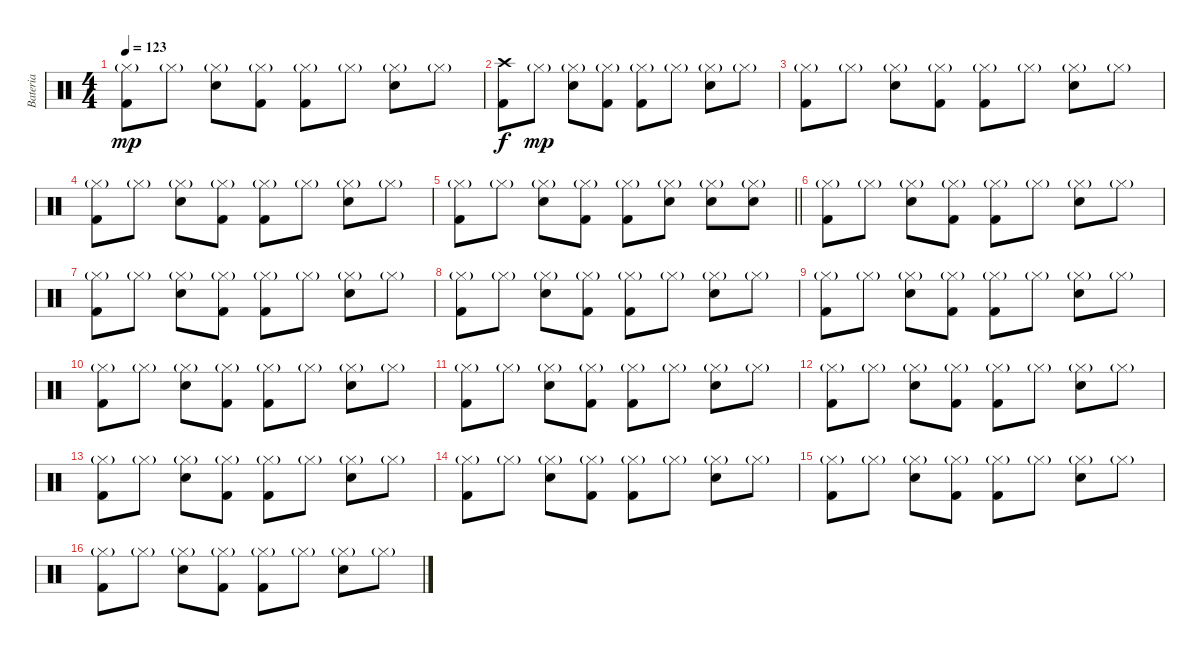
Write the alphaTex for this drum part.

\track ("Bateria" "Bateria") {instrument percussion}
\staff {score}
\articulation defaults
\ts (4 4)
\tempo 123
\clef neutral
\ks c
("Hi-Hat (closed)"{g} "Kick (hit) 2").8{dy mp} "Hi-Hat (closed)"{g}.8 ("Hi-Hat (closed)"{g} "Snare (hit) 2").8 ("Hi-Hat (closed)"{g} "Kick (hit) 2").8 ("Hi-Hat (closed)"{g} "Kick (hit) 2").8 "Hi-Hat (closed)"{g}.8 ("Hi-Hat (closed)"{g} "Snare (hit) 2").8 "Hi-Hat (closed)"{g}.8 |
("Crash high (hit)" "Kick (hit) 2").8{dy f} "Hi-Hat (closed)"{g}.8{dy mp} ("Hi-Hat (closed)"{g} "Snare (hit) 2").8 ("Hi-Hat (closed)"{g} "Kick (hit) 2").8 ("Hi-Hat (closed)"{g} "Kick (hit) 2").8 "Hi-Hat (closed)"{g}.8 ("Hi-Hat (closed)"{g} "Snare (hit) 2").8 "Hi-Hat (closed)"{g}.8 |
("Hi-Hat (closed)"{g} "Kick (hit) 2").8 "Hi-Hat (closed)"{g}.8 ("Hi-Hat (closed)"{g} "Snare (hit) 2").8 ("Hi-Hat (closed)"{g} "Kick (hit) 2").8 ("Hi-Hat (closed)"{g} "Kick (hit) 2").8 "Hi-Hat (closed)"{g}.8 ("Hi-Hat (closed)"{g} "Snare (hit) 2").8 "Hi-Hat (closed)"{g}.8 |
("Hi-Hat (closed)"{g} "Kick (hit) 2").8 "Hi-Hat (closed)"{g}.8 ("Hi-Hat (closed)"{g} "Snare (hit) 2").8 ("Hi-Hat (closed)"{g} "Kick (hit) 2").8 ("Hi-Hat (closed)"{g} "Kick (hit) 2").8 "Hi-Hat (closed)"{g}.8 ("Hi-Hat (closed)"{g} "Snare (hit) 2").8 "Hi-Hat (closed)"{g}.8 |
\barLineRight lightlight
("Hi-Hat (closed)"{g} "Kick (hit) 2").8 "Hi-Hat (closed)"{g}.8 ("Hi-Hat (closed)"{g} "Snare (hit) 2").8 ("Hi-Hat (closed)"{g} "Kick (hit) 2").8 ("Hi-Hat (closed)"{g} "Kick (hit) 2").8 ("Hi-Hat (closed)"{g} "Snare (hit) 2").8 ("Hi-Hat (closed)"{g} "Snare (hit) 2").8 ("Hi-Hat (closed)"{g} "Snare (hit) 2").8 |
("Hi-Hat (closed)"{g} "Kick (hit) 2").8 "Hi-Hat (closed)"{g}.8 ("Hi-Hat (closed)"{g} "Snare (hit) 2").8 ("Hi-Hat (closed)"{g} "Kick (hit) 2").8 ("Hi-Hat (closed)"{g} "Kick (hit) 2").8 "Hi-Hat (closed)"{g}.8 ("Hi-Hat (closed)"{g} "Snare (hit) 2").8 "Hi-Hat (closed)"{g}.8 |
("Hi-Hat (closed)"{g} "Kick (hit) 2").8 "Hi-Hat (closed)"{g}.8 ("Hi-Hat (closed)"{g} "Snare (hit) 2").8 ("Hi-Hat (closed)"{g} "Kick (hit) 2").8 ("Hi-Hat (closed)"{g} "Kick (hit) 2").8 "Hi-Hat (closed)"{g}.8 ("Hi-Hat (closed)"{g} "Snare (hit) 2").8 "Hi-Hat (closed)"{g}.8 |
("Hi-Hat (closed)"{g} "Kick (hit) 2").8 "Hi-Hat (closed)"{g}.8 ("Hi-Hat (closed)"{g} "Snare (hit) 2").8 ("Hi-Hat (closed)"{g} "Kick (hit) 2").8 ("Hi-Hat (closed)"{g} "Kick (hit) 2").8 "Hi-Hat (closed)"{g}.8 ("Hi-Hat (closed)"{g} "Snare (hit) 2").8 "Hi-Hat (closed)"{g}.8 |
("Hi-Hat (closed)"{g} "Kick (hit) 2").8 "Hi-Hat (closed)"{g}.8 ("Hi-Hat (closed)"{g} "Snare (hit) 2").8 ("Hi-Hat (closed)"{g} "Kick (hit) 2").8 ("Hi-Hat (closed)"{g} "Kick (hit) 2").8 "Hi-Hat (closed)"{g}.8 ("Hi-Hat (closed)"{g} "Snare (hit) 2").8 "Hi-Hat (closed)"{g}.8 |
("Hi-Hat (closed)"{g} "Kick (hit) 2").8 "Hi-Hat (closed)"{g}.8 ("Hi-Hat (closed)"{g} "Snare (hit) 2").8 ("Hi-Hat (closed)"{g} "Kick (hit) 2").8 ("Hi-Hat (closed)"{g} "Kick (hit) 2").8 "Hi-Hat (closed)"{g}.8 ("Hi-Hat (closed)"{g} "Snare (hit) 2").8 "Hi-Hat (closed)"{g}.8 |
("Hi-Hat (closed)"{g} "Kick (hit) 2").8 "Hi-Hat (closed)"{g}.8 ("Hi-Hat (closed)"{g} "Snare (hit) 2").8 ("Hi-Hat (closed)"{g} "Kick (hit) 2").8 ("Hi-Hat (closed)"{g} "Kick (hit) 2").8 "Hi-Hat (closed)"{g}.8 ("Hi-Hat (closed)"{g} "Snare (hit) 2").8 "Hi-Hat (closed)"{g}.8 |
("Hi-Hat (closed)"{g} "Kick (hit) 2").8 "Hi-Hat (closed)"{g}.8 ("Hi-Hat (closed)"{g} "Snare (hit) 2").8 ("Hi-Hat (closed)"{g} "Kick (hit) 2").8 ("Hi-Hat (closed)"{g} "Kick (hit) 2").8 "Hi-Hat (closed)"{g}.8 ("Hi-Hat (closed)"{g} "Snare (hit) 2").8 "Hi-Hat (closed)"{g}.8 |
("Hi-Hat (closed)"{g} "Kick (hit) 2").8 "Hi-Hat (closed)"{g}.8 ("Hi-Hat (closed)"{g} "Snare (hit) 2").8 ("Hi-Hat (closed)"{g} "Kick (hit) 2").8 ("Hi-Hat (closed)"{g} "Kick (hit) 2").8 "Hi-Hat (closed)"{g}.8 ("Hi-Hat (closed)"{g} "Snare (hit) 2").8 "Hi-Hat (closed)"{g}.8 |
("Hi-Hat (closed)"{g} "Kick (hit) 2").8 "Hi-Hat (closed)"{g}.8 ("Hi-Hat (closed)"{g} "Snare (hit) 2").8 ("Hi-Hat (closed)"{g} "Kick (hit) 2").8 ("Hi-Hat (closed)"{g} "Kick (hit) 2").8 "Hi-Hat (closed)"{g}.8 ("Hi-Hat (closed)"{g} "Snare (hit) 2").8 "Hi-Hat (closed)"{g}.8 |
("Hi-Hat (closed)"{g} "Kick (hit) 2").8 "Hi-Hat (closed)"{g}.8 ("Hi-Hat (closed)"{g} "Snare (hit) 2").8 ("Hi-Hat (closed)"{g} "Kick (hit) 2").8 ("Hi-Hat (closed)"{g} "Kick (hit) 2").8 "Hi-Hat (closed)"{g}.8 ("Hi-Hat (closed)"{g} "Snare (hit) 2").8 "Hi-Hat (closed)"{g}.8 |
("Hi-Hat (closed)"{g} "Kick (hit) 2").8 "Hi-Hat (closed)"{g}.8 ("Hi-Hat (closed)"{g} "Snare (hit) 2").8 ("Hi-Hat (closed)"{g} "Kick (hit) 2").8 ("Hi-Hat (closed)"{g} "Kick (hit) 2").8 "Hi-Hat (closed)"{g}.8 ("Hi-Hat (closed)"{g} "Snare (hit) 2").8 "Hi-Hat (closed)"{g}.8
